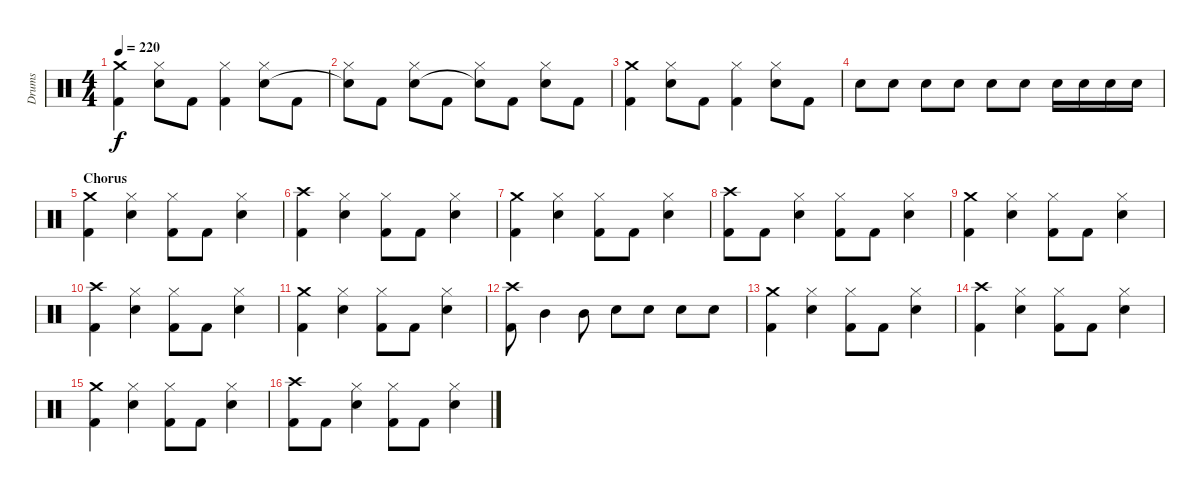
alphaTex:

\track ("Drums" "Drums") {instrument percussion}
\staff {score}
\articulation defaults
\ts (4 4)
\tempo 220
\clef neutral
\ks c
("Crash medium (hit)" "Kick (hit) 2").4{dy f} ("Hi-Hat (closed)" "Electric Snare (hit)").8 "Kick (hit) 2".8 ("Hi-Hat (closed)" "Kick (hit) 2").4 ("Hi-Hat (closed)" "Electric Snare (hit)").8 "Kick (hit) 2".8 |
("Hi-Hat (closed)" "Snare (hit)"{t}).8 "Kick (hit) 2".8 ("Hi-Hat (closed)" "Electric Snare (hit)").8 "Kick (hit) 2".8 ("Hi-Hat (closed)" "Snare (hit)"{t}).8 "Kick (hit) 2".8 ("Hi-Hat (closed)" "Electric Snare (hit)").8 "Kick (hit) 2".8 |
("Crash medium (hit)" "Kick (hit) 2").4 ("Hi-Hat (closed)" "Electric Snare (hit)").8 "Kick (hit) 2".8 ("Hi-Hat (closed)" "Kick (hit) 2").4 ("Hi-Hat (closed)" "Electric Snare (hit)").8 "Kick (hit) 2".8 |
"Electric Snare (hit)".8 "Electric Snare (hit)".8 "Electric Snare (hit)".8 "Electric Snare (hit)".8 "Electric Snare (hit)".8 "Electric Snare (hit)".8 "Electric Snare (hit)".16 "Electric Snare (hit)".16 "Electric Snare (hit)".16 "Electric Snare (hit)".16 |
\section ("" "Chorus")
("Crash medium (hit)" "Kick (hit) 2").4 ("Hi-Hat (closed)" "Electric Snare (hit)").4 ("Hi-Hat (closed)" "Kick (hit) 2").8 "Kick (hit) 2".8 ("Hi-Hat (closed)" "Electric Snare (hit)").4 |
("Crash high (hit)" "Kick (hit) 2").4 ("Hi-Hat (closed)" "Electric Snare (hit)").4 ("Hi-Hat (closed)" "Kick (hit) 2").8 "Kick (hit) 2".8 ("Hi-Hat (closed)" "Electric Snare (hit)").4 |
("Crash medium (hit)" "Kick (hit) 2").4 ("Hi-Hat (closed)" "Electric Snare (hit)").4 ("Hi-Hat (closed)" "Kick (hit) 2").8 "Kick (hit) 2".8 ("Hi-Hat (closed)" "Electric Snare (hit)").4 |
("Crash high (hit)" "Kick (hit) 2").8 "Kick (hit) 2".8 ("Hi-Hat (closed)" "Electric Snare (hit)").4 ("Hi-Hat (closed)" "Kick (hit) 2").8 "Kick (hit) 2".8 ("Hi-Hat (closed)" "Electric Snare (hit)").4 |
("Crash medium (hit)" "Kick (hit) 2").4 ("Hi-Hat (closed)" "Electric Snare (hit)").4 ("Hi-Hat (closed)" "Kick (hit) 2").8 "Kick (hit) 2".8 ("Hi-Hat (closed)" "Electric Snare (hit)").4 |
("Crash high (hit)" "Kick (hit) 2").4 ("Hi-Hat (closed)" "Electric Snare (hit)").4 ("Hi-Hat (closed)" "Kick (hit) 2").8 "Kick (hit) 2".8 ("Hi-Hat (closed)" "Electric Snare (hit)").4 |
("Crash medium (hit)" "Kick (hit) 2").4 ("Hi-Hat (closed)" "Electric Snare (hit)").4 ("Hi-Hat (closed)" "Kick (hit) 2").8 "Kick (hit) 2".8 ("Hi-Hat (closed)" "Electric Snare (hit)").4 |
("Crash high (hit)" "Kick (hit) 2").8 "Mid Tom (hit)".4 "Mid Tom (hit)".8 "Electric Snare (hit)".8 "Electric Snare (hit)".8 "Electric Snare (hit)".8 "Electric Snare (hit)".8 |
("Crash medium (hit)" "Kick (hit) 2").4 ("Hi-Hat (closed)" "Electric Snare (hit)").4 ("Hi-Hat (closed)" "Kick (hit) 2").8 "Kick (hit) 2".8 ("Hi-Hat (closed)" "Electric Snare (hit)").4 |
("Crash high (hit)" "Kick (hit) 2").4 ("Hi-Hat (closed)" "Electric Snare (hit)").4 ("Hi-Hat (closed)" "Kick (hit) 2").8 "Kick (hit) 2".8 ("Hi-Hat (closed)" "Electric Snare (hit)").4 |
("Crash medium (hit)" "Kick (hit) 2").4 ("Hi-Hat (closed)" "Electric Snare (hit)").4 ("Hi-Hat (closed)" "Kick (hit) 2").8 "Kick (hit) 2".8 ("Hi-Hat (closed)" "Electric Snare (hit)").4 |
("Crash high (hit)" "Kick (hit) 2").8 "Kick (hit) 2".8 ("Hi-Hat (closed)" "Electric Snare (hit)").4 ("Hi-Hat (closed)" "Kick (hit) 2").8 "Kick (hit) 2".8 ("Hi-Hat (closed)" "Electric Snare (hit)").4
